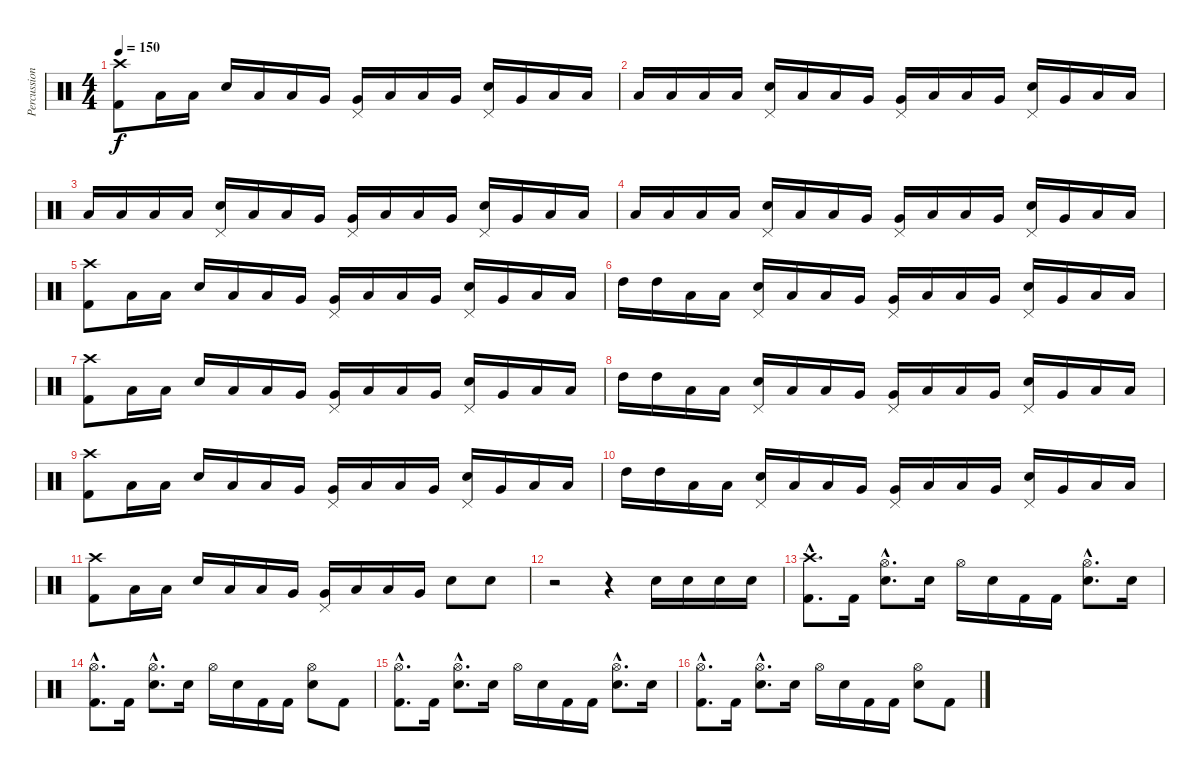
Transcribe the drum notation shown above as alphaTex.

\track ("Percussion" "Percussion") {instrument percussion}
\staff {score}
\articulation defaults
\ts (4 4)
\tempo 150
\clef neutral
\ks c
("Kick (hit) 2" "Crash high (hit)").8{dy f} "Low Tom (hit)".16 "Low Tom (hit)".16 "Electric Snare (hit)".16 "Low Tom (hit)".16 "Low Tom (hit)".16 "Very Low Tom (hit)".16 ("Very Low Tom (hit)" "Pedal Hi-Hat (hit)").16 "Low Floor Tom (hit)".16 "Low Floor Tom (hit)".16 "Very Low Tom (hit)".16 ("Electric Snare (hit)" "Pedal Hi-Hat (hit)").16 "Very Low Tom (hit)".16 "Low Tom (hit)".16 "Low Tom (hit)".16 |
"Low Floor Tom (hit)".16 "Low Floor Tom (hit)".16 "Low Tom (hit)".16 "Low Tom (hit)".16 ("Electric Snare (hit)" "Pedal Hi-Hat (hit)").16 "Low Tom (hit)".16 "Low Tom (hit)".16 "Very Low Tom (hit)".16 ("Very Low Tom (hit)" "Pedal Hi-Hat (hit)").16 "Low Floor Tom (hit)".16 "Low Floor Tom (hit)".16 "Very Low Tom (hit)".16 ("Electric Snare (hit)" "Pedal Hi-Hat (hit)").16 "Very Low Tom (hit)".16 "Low Tom (hit)".16 "Low Tom (hit)".16 |
"Low Floor Tom (hit)".16 "Low Floor Tom (hit)".16 "Low Tom (hit)".16 "Low Tom (hit)".16 ("Electric Snare (hit)" "Pedal Hi-Hat (hit)").16 "Low Tom (hit)".16 "Low Tom (hit)".16 "Very Low Tom (hit)".16 ("Very Low Tom (hit)" "Pedal Hi-Hat (hit)").16 "Low Floor Tom (hit)".16 "Low Floor Tom (hit)".16 "Very Low Tom (hit)".16 ("Electric Snare (hit)" "Pedal Hi-Hat (hit)").16 "Very Low Tom (hit)".16 "Low Tom (hit)".16 "Low Tom (hit)".16 |
"Low Floor Tom (hit)".16 "Low Floor Tom (hit)".16 "Low Tom (hit)".16 "Low Tom (hit)".16 ("Electric Snare (hit)" "Pedal Hi-Hat (hit)").16 "Low Tom (hit)".16 "Low Tom (hit)".16 "Very Low Tom (hit)".16 ("Very Low Tom (hit)" "Pedal Hi-Hat (hit)").16 "Low Floor Tom (hit)".16 "Low Floor Tom (hit)".16 "Very Low Tom (hit)".16 ("Electric Snare (hit)" "Pedal Hi-Hat (hit)").16 "Very Low Tom (hit)".16 "Low Tom (hit)".16 "Low Tom (hit)".16 |
("Kick (hit) 2" "Crash high (hit)").8 "Low Tom (hit)".16 "Low Tom (hit)".16 "Electric Snare (hit)".16 "Low Tom (hit)".16 "Low Tom (hit)".16 "Very Low Tom (hit)".16 ("Very Low Tom (hit)" "Pedal Hi-Hat (hit)").16 "Low Floor Tom (hit)".16 "Low Floor Tom (hit)".16 "Very Low Tom (hit)".16 ("Electric Snare (hit)" "Pedal Hi-Hat (hit)").16 "Very Low Tom (hit)".16 "Low Tom (hit)".16 "Low Tom (hit)".16 |
"High Tom (hit)".16 "High Tom (hit)".16 "Low Tom (hit)".16 "Low Tom (hit)".16 ("Electric Snare (hit)" "Pedal Hi-Hat (hit)").16 "Low Tom (hit)".16 "Low Tom (hit)".16 "Very Low Tom (hit)".16 ("Very Low Tom (hit)" "Pedal Hi-Hat (hit)").16 "Low Floor Tom (hit)".16 "Low Floor Tom (hit)".16 "Very Low Tom (hit)".16 ("Electric Snare (hit)" "Pedal Hi-Hat (hit)").16 "Very Low Tom (hit)".16 "Low Tom (hit)".16 "Low Tom (hit)".16 |
("Kick (hit) 2" "Crash high (hit)").8 "Low Tom (hit)".16 "Low Tom (hit)".16 "Electric Snare (hit)".16 "Low Tom (hit)".16 "Low Tom (hit)".16 "Very Low Tom (hit)".16 ("Very Low Tom (hit)" "Pedal Hi-Hat (hit)").16 "Low Floor Tom (hit)".16 "Low Floor Tom (hit)".16 "Very Low Tom (hit)".16 ("Electric Snare (hit)" "Pedal Hi-Hat (hit)").16 "Very Low Tom (hit)".16 "Low Tom (hit)".16 "Low Tom (hit)".16 |
"High Tom (hit)".16 "High Tom (hit)".16 "Low Tom (hit)".16 "Low Tom (hit)".16 ("Electric Snare (hit)" "Pedal Hi-Hat (hit)").16 "Low Tom (hit)".16 "Low Tom (hit)".16 "Very Low Tom (hit)".16 ("Very Low Tom (hit)" "Pedal Hi-Hat (hit)").16 "Low Floor Tom (hit)".16 "Low Floor Tom (hit)".16 "Very Low Tom (hit)".16 ("Electric Snare (hit)" "Pedal Hi-Hat (hit)").16 "Very Low Tom (hit)".16 "Low Tom (hit)".16 "Low Tom (hit)".16 |
("Kick (hit) 2" "Crash high (hit)").8 "Low Tom (hit)".16 "Low Tom (hit)".16 "Electric Snare (hit)".16 "Low Tom (hit)".16 "Low Tom (hit)".16 "Very Low Tom (hit)".16 ("Very Low Tom (hit)" "Pedal Hi-Hat (hit)").16 "Low Floor Tom (hit)".16 "Low Floor Tom (hit)".16 "Very Low Tom (hit)".16 ("Electric Snare (hit)" "Pedal Hi-Hat (hit)").16 "Very Low Tom (hit)".16 "Low Tom (hit)".16 "Low Tom (hit)".16 |
"High Tom (hit)".16 "High Tom (hit)".16 "Low Tom (hit)".16 "Low Tom (hit)".16 ("Electric Snare (hit)" "Pedal Hi-Hat (hit)").16 "Low Tom (hit)".16 "Low Tom (hit)".16 "Very Low Tom (hit)".16 ("Very Low Tom (hit)" "Pedal Hi-Hat (hit)").16 "Low Floor Tom (hit)".16 "Low Floor Tom (hit)".16 "Very Low Tom (hit)".16 ("Electric Snare (hit)" "Pedal Hi-Hat (hit)").16 "Very Low Tom (hit)".16 "Low Tom (hit)".16 "Low Tom (hit)".16 |
("Kick (hit) 2" "Crash high (hit)").8 "Low Tom (hit)".16 "Low Tom (hit)".16 "Electric Snare (hit)".16 "Low Tom (hit)".16 "Low Tom (hit)".16 "Very Low Tom (hit)".16 ("Very Low Tom (hit)" "Pedal Hi-Hat (hit)").16 "Low Floor Tom (hit)".16 "Low Floor Tom (hit)".16 "Very Low Tom (hit)".16 "Electric Snare (hit)".8 "Electric Snare (hit)".8 |
r.2 r.4 "Electric Snare (hit)".16 "Electric Snare (hit)".16 "Electric Snare (hit)".16 "Electric Snare (hit)".16 |
("Kick (hit) 2"{hac} "Crash high (hit)"{hac}).8{d} "Kick (hit) 2".16 ("Electric Snare (hit)"{hac} "Hi-Hat (open)"{hac}).8{d} "Electric Snare (hit)".16 "Hi-Hat (open)".16 "Electric Snare (hit)".16 "Kick (hit) 2".16 "Kick (hit) 2".16 ("Electric Snare (hit)"{hac} "Hi-Hat (open)"{hac}).8{d} "Electric Snare (hit)".16 |
("Kick (hit) 2"{hac} "Hi-Hat (open)"{hac}).8{d} "Kick (hit) 2".16 ("Electric Snare (hit)"{hac} "Hi-Hat (open)"{hac}).8{d} "Electric Snare (hit)".16 "Hi-Hat (open)".16 "Electric Snare (hit)".16 "Kick (hit) 2".16 "Kick (hit) 2".16 ("Electric Snare (hit)" "Hi-Hat (open)").8 "Kick (hit) 2".8 |
("Kick (hit) 2"{hac} "Hi-Hat (open)"{hac}).8{d} "Kick (hit) 2".16 ("Electric Snare (hit)"{hac} "Hi-Hat (open)"{hac}).8{d} "Electric Snare (hit)".16 "Hi-Hat (open)".16 "Electric Snare (hit)".16 "Kick (hit) 2".16 "Kick (hit) 2".16 ("Electric Snare (hit)"{hac} "Hi-Hat (open)"{hac}).8{d} "Electric Snare (hit)".16 |
("Kick (hit) 2"{hac} "Hi-Hat (open)"{hac}).8{d} "Kick (hit) 2".16 ("Electric Snare (hit)"{hac} "Hi-Hat (open)"{hac}).8{d} "Electric Snare (hit)".16 "Hi-Hat (open)".16 "Electric Snare (hit)".16 "Kick (hit) 2".16 "Kick (hit) 2".16 ("Electric Snare (hit)" "Hi-Hat (open)").8 "Kick (hit) 2".8
